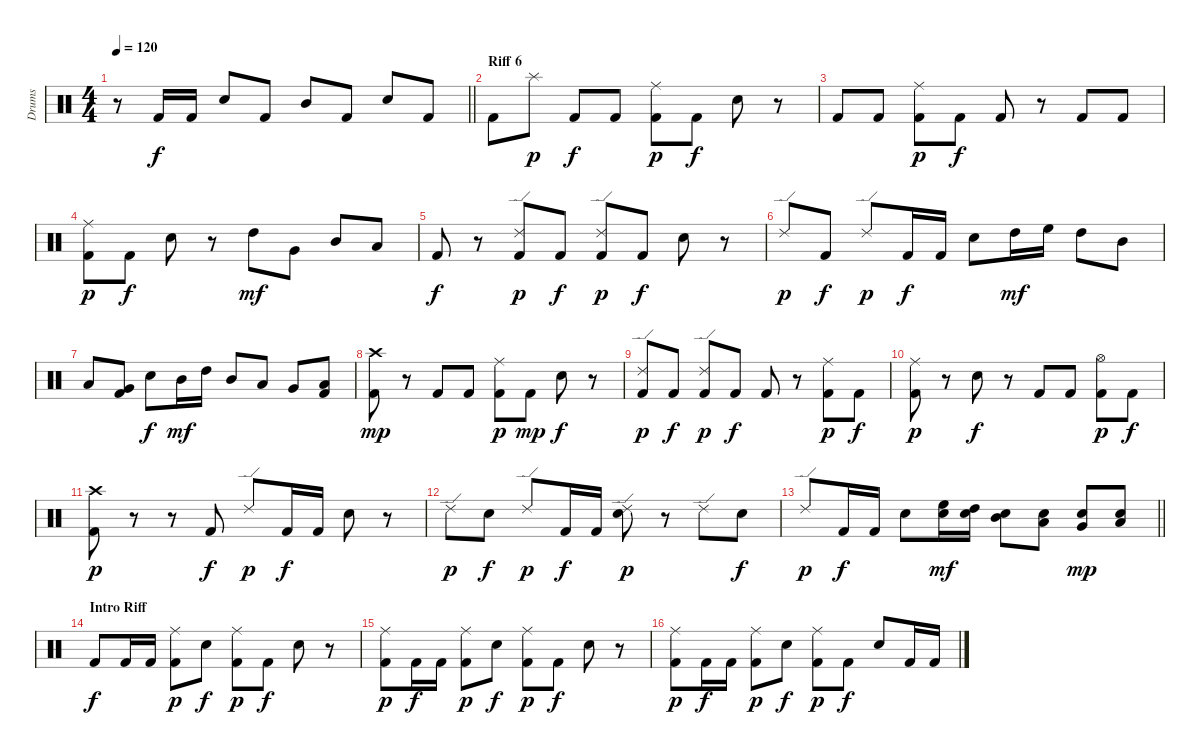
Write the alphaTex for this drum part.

\track ("Drums" "Drums") {instrument percussion}
\staff {score}
\articulation defaults
\ts (4 4)
\tempo 120
\clef neutral
\barLineRight lightlight
\ks c
r.8{dy f} "Kick (hit) 2".16 "Kick (hit) 2".16 "Snare (hit) 2".8 "Kick (hit) 2".8 "Mid Tom (hit)".8 "Kick (hit) 2".8 "Snare (hit) 2".8 "Kick (hit) 2".8 |
\section ("" "Riff 6")
"Kick (hit) 2".8 "Splash (hit)".8{dy p} "Kick (hit) 2".8{dy f} "Kick (hit) 2".8 ("Kick (hit) 2" "Ride (middle)").8{dy p} "Kick (hit) 2".8{dy f} "Snare (hit) 2".8 r.8 |
"Kick (hit) 2".8 "Kick (hit) 2".8 ("Kick (hit) 2" "Ride (middle)").8{dy p} "Kick (hit) 2".8{dy f} "Kick (hit) 2".8 r.8 "Kick (hit) 2".8 "Kick (hit) 2".8 |
("Kick (hit) 2" "Ride (middle)").8{dy p} "Kick (hit) 2".8{dy f} "Snare (hit) 2".8 r.8 "High Tom (hit)".8{dy mf} "Very Low Tom (hit)".8 "Mid Tom (hit)".8 "Low Tom (hit)".8 |
"Kick (hit) 2".8{dy f} r.8 ("Kick (hit) 2" "Ride (edge) 2").8{dy p} "Kick (hit) 2".8{dy f} ("Kick (hit) 2" "Ride (edge) 2").8{dy p} "Kick (hit) 2".8{dy f} "Snare (hit) 2".8 r.8 |
"Ride (edge) 2".8{dy p} "Kick (hit) 2".8{dy f} "Ride (edge) 2".8{dy p} "Kick (hit) 2".16{dy f} "Kick (hit) 2".16 "Snare (hit) 2".8 "High Tom (hit)".16{dy mf} "High Floor Tom (hit)".16 "High Tom (hit)".8 "Mid Tom (hit)".8 |
"Low Tom (hit)".8 ("Kick (hit) 2" "Very Low Tom (hit)").8 "Snare (hit) 2".8{dy f} "Mid Tom (hit)".16{dy mf} "High Tom (hit)".16 "Mid Tom (hit)".8 "Low Tom (hit)".8 "Very Low Tom (hit)".8 ("Kick (hit) 2" "Low Floor Tom (hit)").8 |
("Kick (hit) 2" "Crash high (hit)").8{dy mp} r.8 "Kick (hit) 2".8 "Kick (hit) 2".8 ("Kick (hit) 2" "Ride (middle)").8{dy p} "Kick (hit) 2".8{dy mp} "Snare (hit) 2".8{dy f} r.8 |
("Kick (hit) 2" "Ride (edge) 2").8{dy p} "Kick (hit) 2".8{dy f} ("Kick (hit) 2" "Ride (edge) 2").8{dy p} "Kick (hit) 2".8{dy f} "Kick (hit) 2".8 r.8 ("Kick (hit) 2" "Ride (middle)").8{dy p} "Kick (hit) 2".8{dy f} |
("Kick (hit) 2" "Ride (middle)").8{dy p} r.8 "Snare (hit) 2".8{dy f} r.8 "Kick (hit) 2".8 "Kick (hit) 2".8 ("Kick (hit) 2" "Hi-Hat (open)").8{dy p} "Kick (hit) 2".8{dy f} |
("Kick (hit) 2" "Crash high (hit)").8{dy p} r.8 r.8 "Kick (hit) 2".8{dy f} "Ride (edge) 2".8{dy p} "Kick (hit) 2".16{dy f} "Kick (hit) 2".16 "Snare (hit) 2".8 r.8 |
"Ride (edge) 2".8{dy p} "Snare (hit) 2".8{dy f} "Ride (edge) 2".8{dy p} "Kick (hit) 2".16{dy f} "Kick (hit) 2".16 ("Ride (edge) 2" "Snare (hit) 2").8{dy p} r.8 "Ride (edge) 2".8 "Snare (hit) 2".8{dy f} |
\barLineRight lightlight "Ride (edge) 2".8{dy p} "Kick (hit) 2".16{dy f} "Kick (hit) 2".16 "Snare (hit) 2".8
("Snare (hit) 2" "High Floor Tom (hit)").16{dy mf} ("Snare (hit) 2" "High Tom (hit)").16 ("Snare (hit) 2" "Mid Tom (hit)").8 ("Snare (hit) 2" "Low Tom (hit)").8 ("Snare (hit) 2" "Very Low Tom (hit)").8{dy mp} ("Snare (hit) 2" "Low Floor Tom (hit)").8 |
\section ("" "Intro Riff")
"Kick (hit) 2".8{dy f} "Kick (hit) 2".16 "Kick (hit) 2".16 ("Kick (hit) 2" "Ride (middle)").8{dy p} "Snare (hit) 2".8{dy f} ("Kick (hit) 2" "Ride (middle)").8{dy p} "Kick (hit) 2".8{dy f} "Snare (hit) 2".8 r.8 |
("Kick (hit) 2" "Ride (middle)").8{dy p} "Kick (hit) 2".16{dy f} "Kick (hit) 2".16 ("Kick (hit) 2" "Ride (middle)").8{dy p} "Snare (hit) 2".8{dy f} ("Kick (hit) 2" "Ride (middle)").8{dy p} "Kick (hit) 2".8{dy f} "Snare (hit) 2".8 r.8 |
("Kick (hit) 2" "Ride (middle)").8{dy p} "Kick (hit) 2".16{dy f} "Kick (hit) 2".16 ("Kick (hit) 2" "Ride (middle)").8{dy p} "Snare (hit) 2".8{dy f} ("Kick (hit) 2" "Ride (middle)").8{dy p} "Kick (hit) 2".8{dy f} "Snare (hit) 2".8 "Kick (hit) 2".16 "Kick (hit) 2".16
